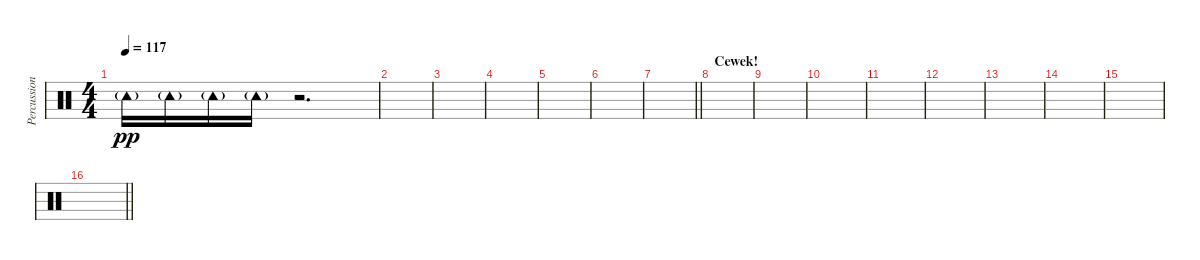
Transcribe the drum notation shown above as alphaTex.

\track ("Percussion 2" "Percussion") {instrument percussion}
\staff {score}
\articulation defaults
\ts (4 4)
\tempo 117
\clef neutral
\ks c "Tambourine (hit)"{g}.16{dy pp} "Tambourine (hit)"{g}.16 "Tambourine (hit)"{g}.16 "Tambourine (hit)"{g}.16
r.2{d} |
|
|
|
|
|
\barLineRight lightlight
|
\section ("" "Cewek!")
|
|
|
|
|
|
|
|
\barLineRight lightlight
